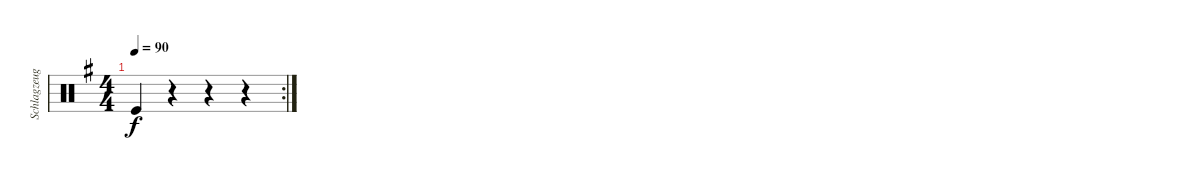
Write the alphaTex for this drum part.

\track ("Schlagzeug" "Schlagzeug") {instrument percussion}
\staff {score}
\articulation defaults
\rc 2
\ts (4 4)
\tempo 90
\clef neutral
\ks g "Kick (hit)".4{dy f}
r.4 r.4 r.4
